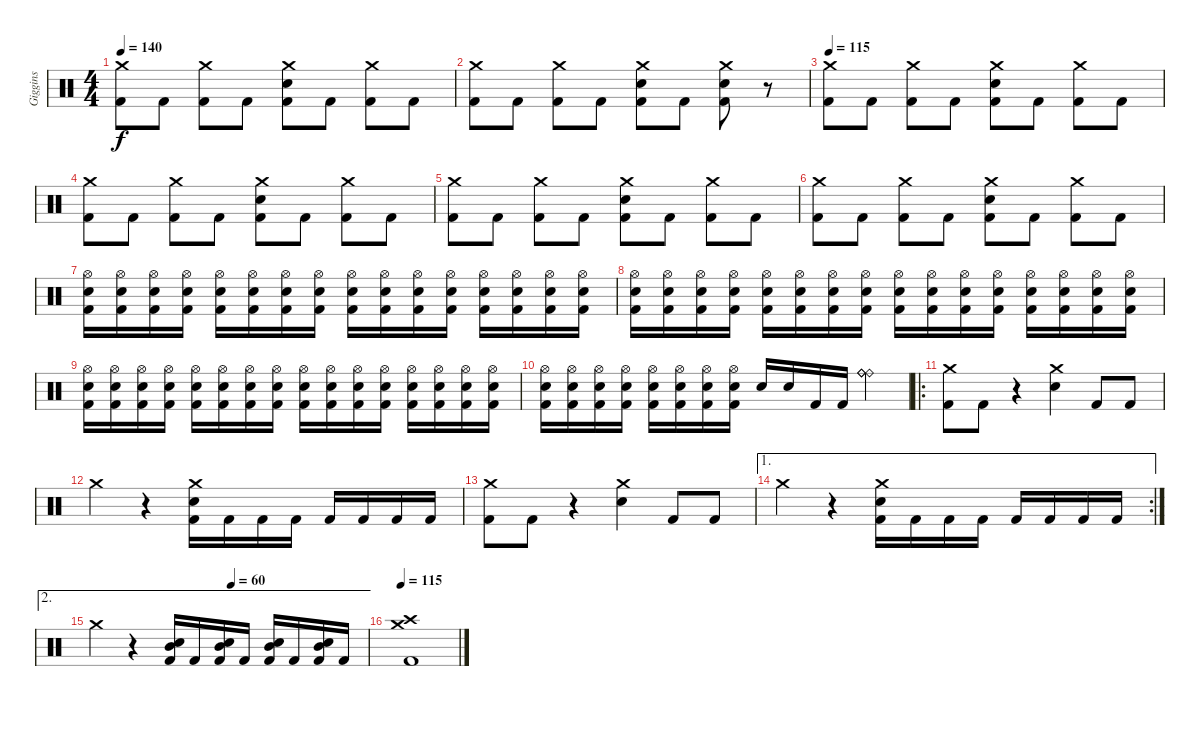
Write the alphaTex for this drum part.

\track ("Giggins" "Giggins") {instrument percussion}
\staff {score}
\articulation defaults
\ts (4 4)
\tempo 140
\clef neutral
\ks c
("Crash medium (hit)" "Kick (hit) 2").8{dy f} "Kick (hit) 2".8 ("Crash medium (hit)" "Kick (hit) 2").8 "Kick (hit) 2".8 ("Crash medium (hit)" "Snare (hit) 2" "Kick (hit) 2").8 "Kick (hit) 2".8 ("Crash medium (hit)" "Kick (hit) 2").8 "Kick (hit) 2".8 |
("Crash medium (hit)" "Kick (hit) 2").8 "Kick (hit) 2".8 ("Crash medium (hit)" "Kick (hit) 2").8 "Kick (hit) 2".8 ("Crash medium (hit)" "Snare (hit) 2" "Kick (hit) 2").8 "Kick (hit) 2".8 ("Crash medium (hit)" "Snare (hit) 2" "Kick (hit) 2").8 r.8 |
\tempo 150
\tempo 115
("Crash medium (hit)" "Kick (hit) 2").8 "Kick (hit) 2".8 ("Crash medium (hit)" "Kick (hit) 2").8 "Kick (hit) 2".8 ("Crash medium (hit)" "Snare (hit) 2" "Kick (hit) 2").8 "Kick (hit) 2".8 ("Crash medium (hit)" "Kick (hit) 2").8 "Kick (hit) 2".8 |
("Crash medium (hit)" "Kick (hit) 2").8 "Kick (hit) 2".8 ("Crash medium (hit)" "Kick (hit) 2").8 "Kick (hit) 2".8 ("Crash medium (hit)" "Snare (hit) 2" "Kick (hit) 2").8 "Kick (hit) 2".8 ("Crash medium (hit)" "Kick (hit) 2").8 "Kick (hit) 2".8 |
("Crash medium (hit)" "Kick (hit) 2").8 "Kick (hit) 2".8 ("Crash medium (hit)" "Kick (hit) 2").8 "Kick (hit) 2".8 ("Crash medium (hit)" "Snare (hit) 2" "Kick (hit) 2").8 "Kick (hit) 2".8 ("Crash medium (hit)" "Kick (hit) 2").8 "Kick (hit) 2".8 |
("Crash medium (hit)" "Kick (hit) 2").8 "Kick (hit) 2".8 ("Crash medium (hit)" "Kick (hit) 2").8 "Kick (hit) 2".8 ("Crash medium (hit)" "Snare (hit) 2" "Kick (hit) 2").8 "Kick (hit) 2".8 ("Crash medium (hit)" "Kick (hit) 2").8 "Kick (hit) 2".8 |
("Hi-Hat (open)" "Kick (hit) 2" "Snare (hit) 2").16 ("Hi-Hat (open)" "Kick (hit) 2" "Snare (hit) 2").16 ("Hi-Hat (open)" "Kick (hit) 2" "Snare (hit) 2").16 ("Hi-Hat (open)" "Kick (hit) 2" "Snare (hit) 2").16 ("Hi-Hat (open)" "Kick (hit) 2" "Snare (hit) 2").16 ("Hi-Hat (open)" "Kick (hit) 2" "Snare (hit) 2").16 ("Hi-Hat (open)" "Kick (hit) 2" "Snare (hit) 2").16 ("Hi-Hat (open)" "Kick (hit) 2" "Snare (hit) 2").16 ("Hi-Hat (open)" "Kick (hit) 2" "Snare (hit) 2").16 ("Hi-Hat (open)" "Kick (hit) 2" "Snare (hit) 2").16 ("Hi-Hat (open)" "Kick (hit) 2" "Snare (hit) 2").16 ("Hi-Hat (open)" "Kick (hit) 2" "Snare (hit) 2").16 ("Hi-Hat (open)" "Kick (hit) 2" "Snare (hit) 2").16 ("Hi-Hat (open)" "Kick (hit) 2" "Snare (hit) 2").16 ("Hi-Hat (open)" "Kick (hit) 2" "Snare (hit) 2").16 ("Hi-Hat (open)" "Kick (hit) 2" "Snare (hit) 2").16 |
("Hi-Hat (open)" "Kick (hit) 2" "Snare (hit) 2").16 ("Hi-Hat (open)" "Kick (hit) 2" "Snare (hit) 2").16 ("Hi-Hat (open)" "Kick (hit) 2" "Snare (hit) 2").16 ("Hi-Hat (open)" "Kick (hit) 2" "Snare (hit) 2").16 ("Hi-Hat (open)" "Kick (hit) 2" "Snare (hit) 2").16 ("Hi-Hat (open)" "Kick (hit) 2" "Snare (hit) 2").16 ("Hi-Hat (open)" "Kick (hit) 2" "Snare (hit) 2").16 ("Hi-Hat (open)" "Kick (hit) 2" "Snare (hit) 2").16 ("Hi-Hat (open)" "Kick (hit) 2" "Snare (hit) 2").16 ("Hi-Hat (open)" "Kick (hit) 2" "Snare (hit) 2").16 ("Hi-Hat (open)" "Kick (hit) 2" "Snare (hit) 2").16 ("Hi-Hat (open)" "Kick (hit) 2" "Snare (hit) 2").16 ("Hi-Hat (open)" "Kick (hit) 2" "Snare (hit) 2").16 ("Hi-Hat (open)" "Kick (hit) 2" "Snare (hit) 2").16 ("Hi-Hat (open)" "Kick (hit) 2" "Snare (hit) 2").16 ("Hi-Hat (open)" "Kick (hit) 2" "Snare (hit) 2").16 |
("Hi-Hat (open)" "Kick (hit) 2" "Snare (hit) 2").16 ("Hi-Hat (open)" "Kick (hit) 2" "Snare (hit) 2").16 ("Hi-Hat (open)" "Kick (hit) 2" "Snare (hit) 2").16 ("Hi-Hat (open)" "Kick (hit) 2" "Snare (hit) 2").16 ("Hi-Hat (open)" "Kick (hit) 2" "Snare (hit) 2").16 ("Hi-Hat (open)" "Kick (hit) 2" "Snare (hit) 2").16 ("Hi-Hat (open)" "Kick (hit) 2" "Snare (hit) 2").16 ("Hi-Hat (open)" "Kick (hit) 2" "Snare (hit) 2").16 ("Hi-Hat (open)" "Kick (hit) 2" "Snare (hit) 2").16 ("Hi-Hat (open)" "Kick (hit) 2" "Snare (hit) 2").16 ("Hi-Hat (open)" "Kick (hit) 2" "Snare (hit) 2").16 ("Hi-Hat (open)" "Kick (hit) 2" "Snare (hit) 2").16 ("Hi-Hat (open)" "Kick (hit) 2" "Snare (hit) 2").16 ("Hi-Hat (open)" "Kick (hit) 2" "Snare (hit) 2").16 ("Hi-Hat (open)" "Kick (hit) 2" "Snare (hit) 2").16 ("Hi-Hat (open)" "Kick (hit) 2" "Snare (hit) 2").16 |
("Hi-Hat (open)" "Kick (hit) 2" "Snare (hit) 2").16 ("Hi-Hat (open)" "Kick (hit) 2" "Snare (hit) 2").16 ("Hi-Hat (open)" "Kick (hit) 2" "Snare (hit) 2").16 ("Hi-Hat (open)" "Kick (hit) 2" "Snare (hit) 2").16 ("Hi-Hat (open)" "Kick (hit) 2" "Snare (hit) 2").16 ("Hi-Hat (open)" "Kick (hit) 2" "Snare (hit) 2").16 ("Hi-Hat (open)" "Kick (hit) 2" "Snare (hit) 2").16 ("Hi-Hat (open)" "Kick (hit) 2" "Snare (hit) 2").16 "Snare (hit) 2".16 "Snare (hit) 2".16 "Kick (hit) 2".16 "Kick (hit) 2".16 ("Ride (bell)" "Ride (bell)" "Ride (bell)").4 |
\ro
("Crash medium (hit)" "Kick (hit) 2").8 "Kick (hit) 2".8 r.4 ("Crash medium (hit)" "Snare (hit) 2").4 "Kick (hit) 2".8 "Kick (hit) 2".8 |
"Crash medium (hit)".4 r.4 ("Crash medium (hit)" "Snare (hit) 2" "Kick (hit) 2").16 "Kick (hit) 2".16 "Kick (hit) 2".16 "Kick (hit) 2".16 "Kick (hit) 2".16 "Kick (hit) 2".16 "Kick (hit) 2".16 "Kick (hit) 2".16 |
("Crash medium (hit)" "Kick (hit) 2").8 "Kick (hit) 2".8 r.4 ("Crash medium (hit)" "Snare (hit) 2").4 "Kick (hit) 2".8 "Kick (hit) 2".8 |
\ae 1
\rc 2 "Crash medium (hit)".4
r.4 ("Snare (hit) 2" "Crash medium (hit)" "Kick (hit) 2").16 "Kick (hit) 2".16 "Kick (hit) 2".16 "Kick (hit) 2".16 "Kick (hit) 2".16 "Kick (hit) 2".16 "Kick (hit) 2".16 "Kick (hit) 2".16 |
\ae 2
\tempo (60 0.5)
"Crash medium (hit)".4 r.4 ("Mid Tom (hit)" "Snare (hit) 2" "Kick (hit) 2").16 "Kick (hit) 2".16 ("Mid Tom (hit)" "Snare (hit) 2" "Kick (hit) 2").16 "Kick (hit) 2".16 ("Mid Tom (hit)" "Snare (hit) 2" "Kick (hit) 2").16 "Kick (hit) 2".16 ("Mid Tom (hit)" "Snare (hit) 2" "Kick (hit) 2").16 "Kick (hit) 2".16 |
\tempo 115
("Crash high (hit)" "Crash medium (hit)" "Kick (hit) 2").1
